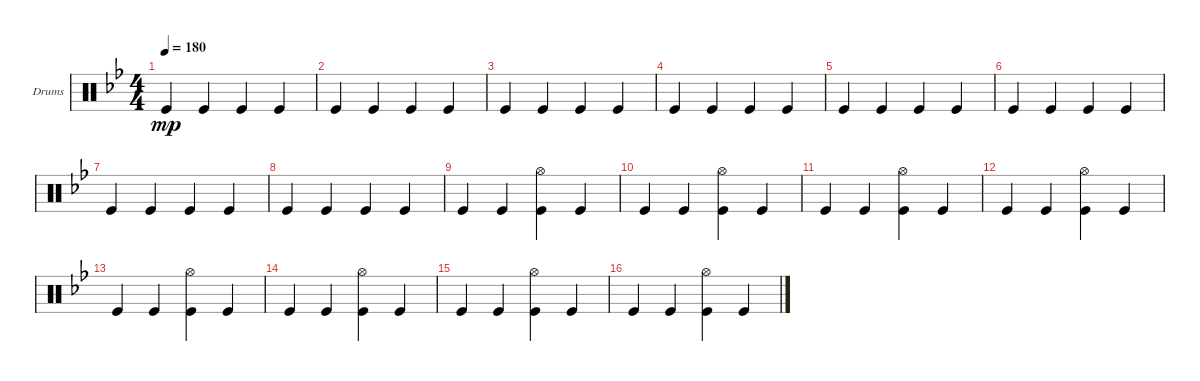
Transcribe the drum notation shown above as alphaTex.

\defaultSystemsLayout 4
\bracketExtendMode groupsimilarinstruments
\firstSystemTrackNameOrientation horizontal
\otherSystemsTrackNameOrientation horizontal
\track ("Drumkit" "Drums") {instrument percussion}
\staff {score}
\articulation defaults
\ts (4 4)
\tempo 180
\clef neutral
\ks bb "Kick (hit)".4{dy mp} "Kick (hit)".4 "Kick (hit)".4 "Kick (hit)".4
|
"Kick (hit)".4 "Kick (hit)".4 "Kick (hit)".4 "Kick (hit)".4 |
"Kick (hit)".4 "Kick (hit)".4 "Kick (hit)".4 "Kick (hit)".4 |
"Kick (hit)".4 "Kick (hit)".4 "Kick (hit)".4 "Kick (hit)".4 |
"Kick (hit)".4 "Kick (hit)".4 "Kick (hit)".4 "Kick (hit)".4 |
"Kick (hit)".4 "Kick (hit)".4 "Kick (hit)".4 "Kick (hit)".4 |
"Kick (hit)".4 "Kick (hit)".4 "Kick (hit)".4 "Kick (hit)".4 |
"Kick (hit)".4 "Kick (hit)".4 "Kick (hit)".4 "Kick (hit)".4 |
"Kick (hit)".4 "Kick (hit)".4 ("Kick (hit)" "Hi-Hat (open)").4 "Kick (hit)".4 |
"Kick (hit)".4 "Kick (hit)".4 ("Kick (hit)" "Hi-Hat (open)").4 "Kick (hit)".4 |
"Kick (hit)".4 "Kick (hit)".4 ("Kick (hit)" "Hi-Hat (open)").4 "Kick (hit)".4 |
"Kick (hit)".4 "Kick (hit)".4 ("Kick (hit)" "Hi-Hat (open)").4 "Kick (hit)".4 |
"Kick (hit)".4 "Kick (hit)".4 ("Kick (hit)" "Hi-Hat (open)").4 "Kick (hit)".4 |
"Kick (hit)".4 "Kick (hit)".4 ("Kick (hit)" "Hi-Hat (open)").4 "Kick (hit)".4 |
"Kick (hit)".4 "Kick (hit)".4 ("Kick (hit)" "Hi-Hat (open)").4 "Kick (hit)".4 |
"Kick (hit)".4 "Kick (hit)".4 ("Kick (hit)" "Hi-Hat (open)").4 "Kick (hit)".4
